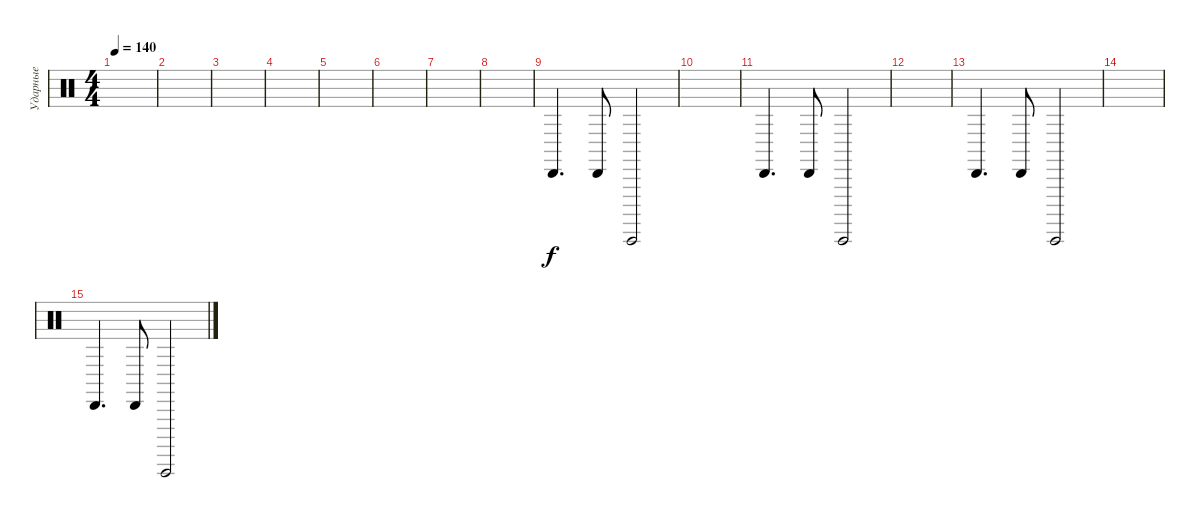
\track ("Ударные" "Ударные") {instrument percussion}
\staff {score}
\articulation defaults
\ts (4 4)
\tempo 140
\clef neutral
\ks c
|
|
|
|
|
|
|
|
"Cabasa (hit)".4{d} "Cabasa (hit)".8 "Guiro (hit)".2 |
|
"Cabasa (hit)".4{d} "Cabasa (hit)".8 "Guiro (hit)".2 |
|
"Cabasa (hit)".4{d} "Cabasa (hit)".8 "Guiro (hit)".2 |
|
"Cabasa (hit)".4{d} "Cabasa (hit)".8 "Guiro (hit)".2
